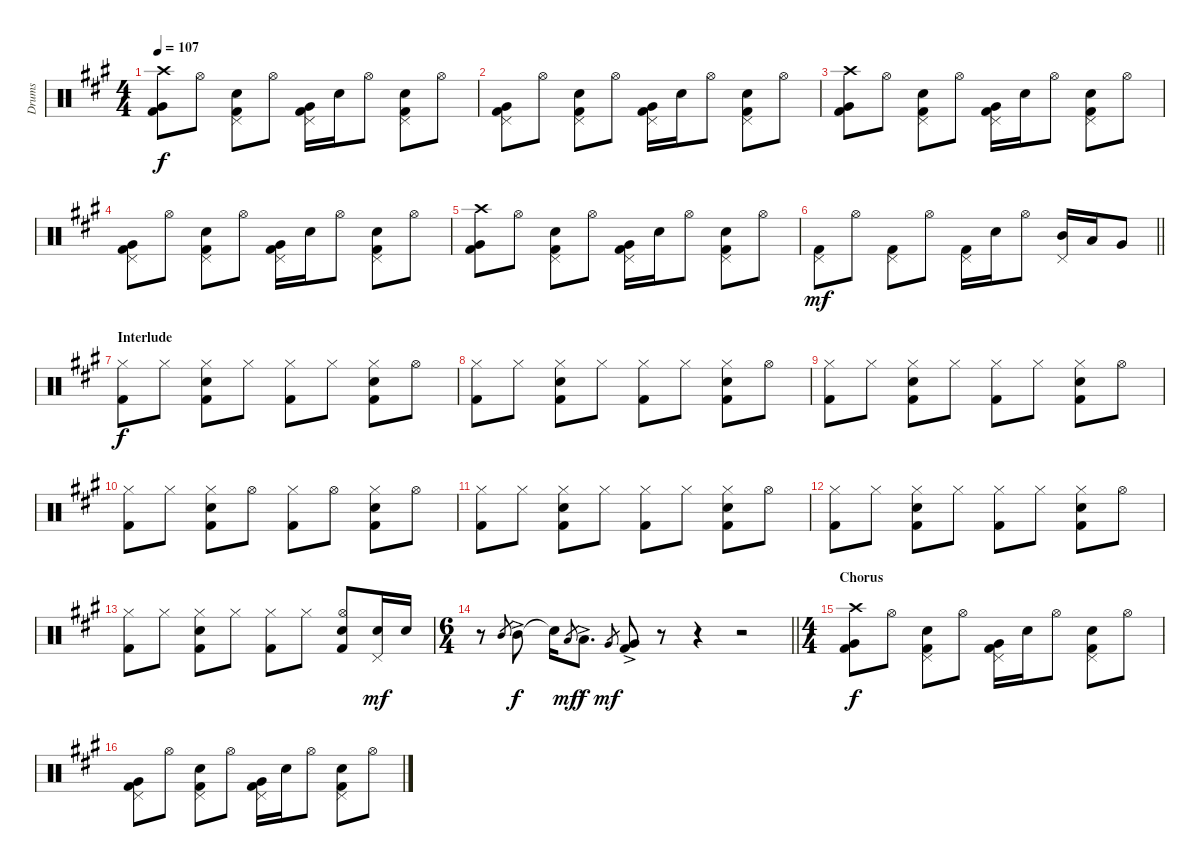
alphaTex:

\track ("Drums" "Drums") {instrument percussion}
\staff {score}
\articulation defaults
\ts (4 4)
\tempo 107
\clef neutral
\ks f#minor
("Crash high (hit)" "Very Low Tom (hit)" "Kick (hit) 2").8{dy f} "Hi-Hat (open)".8 ("Electric Snare (hit)" "Pedal Hi-Hat (hit)" "Kick (hit) 2").8 "Hi-Hat (open)".8 ("Very Low Tom (hit)" "Pedal Hi-Hat (hit)" "Kick (hit) 2").16 "Electric Snare (hit)".16 "Hi-Hat (open)".8 ("Electric Snare (hit)" "Pedal Hi-Hat (hit)" "Kick (hit) 2").8 "Hi-Hat (open)".8 |
("Very Low Tom (hit)" "Pedal Hi-Hat (hit)" "Kick (hit) 2").8 "Hi-Hat (open)".8 ("Electric Snare (hit)" "Pedal Hi-Hat (hit)" "Kick (hit) 2").8 "Hi-Hat (open)".8 ("Very Low Tom (hit)" "Pedal Hi-Hat (hit)" "Kick (hit) 2").16 "Electric Snare (hit)".16 "Hi-Hat (open)".8 ("Electric Snare (hit)" "Pedal Hi-Hat (hit)" "Kick (hit) 2").8 "Hi-Hat (open)".8 |
("Crash high (hit)" "Very Low Tom (hit)" "Kick (hit) 2").8 "Hi-Hat (open)".8 ("Electric Snare (hit)" "Pedal Hi-Hat (hit)" "Kick (hit) 2").8 "Hi-Hat (open)".8 ("Very Low Tom (hit)" "Pedal Hi-Hat (hit)" "Kick (hit) 2").16 "Electric Snare (hit)".16 "Hi-Hat (open)".8 ("Electric Snare (hit)" "Pedal Hi-Hat (hit)" "Kick (hit) 2").8 "Hi-Hat (open)".8 |
("Very Low Tom (hit)" "Pedal Hi-Hat (hit)" "Kick (hit) 2").8 "Hi-Hat (open)".8 ("Electric Snare (hit)" "Pedal Hi-Hat (hit)" "Kick (hit) 2").8 "Hi-Hat (open)".8 ("Very Low Tom (hit)" "Pedal Hi-Hat (hit)" "Kick (hit) 2").16 "Electric Snare (hit)".16 "Hi-Hat (open)".8 ("Electric Snare (hit)" "Pedal Hi-Hat (hit)" "Kick (hit) 2").8 "Hi-Hat (open)".8 |
("Crash high (hit)" "Very Low Tom (hit)" "Kick (hit) 2").8 "Hi-Hat (open)".8 ("Electric Snare (hit)" "Pedal Hi-Hat (hit)" "Kick (hit) 2").8 "Hi-Hat (open)".8 ("Very Low Tom (hit)" "Pedal Hi-Hat (hit)" "Kick (hit) 2").16 "Electric Snare (hit)".16 "Hi-Hat (open)".8 ("Electric Snare (hit)" "Pedal Hi-Hat (hit)" "Kick (hit) 2").8 "Hi-Hat (open)".8 |
\barLineRight lightlight
("Pedal Hi-Hat (hit)" "Kick (hit) 2").8{dy mf} "Hi-Hat (open)".8 ("Pedal Hi-Hat (hit)" "Kick (hit) 2").8 "Hi-Hat (open)".8 ("Pedal Hi-Hat (hit)" "Kick (hit) 2").16 "Electric Snare (hit)".16 "Hi-Hat (open)".8 ("Mid Tom (hit)" "Pedal Hi-Hat (hit)").16 "Low Tom (hit)".16 "Very Low Tom (hit)".8 |
\section ("" "Interlude")
("Hi-Hat (closed)" "Kick (hit) 2").8{dy f} "Hi-Hat (closed)".8 ("Hi-Hat (closed)" "Electric Snare (hit)" "Kick (hit) 2").8 "Hi-Hat (closed)".8 ("Hi-Hat (closed)" "Kick (hit) 2").8 "Hi-Hat (closed)".8 ("Hi-Hat (closed)" "Electric Snare (hit)" "Kick (hit) 2").8 "Hi-Hat (open)".8 |
("Hi-Hat (closed)" "Kick (hit) 2").8 "Hi-Hat (closed)".8 ("Hi-Hat (closed)" "Electric Snare (hit)" "Kick (hit) 2").8 "Hi-Hat (closed)".8 ("Hi-Hat (closed)" "Kick (hit) 2").8 "Hi-Hat (closed)".8 ("Hi-Hat (closed)" "Electric Snare (hit)" "Kick (hit) 2").8 "Hi-Hat (open)".8 |
("Hi-Hat (closed)" "Kick (hit) 2").8 "Hi-Hat (closed)".8 ("Hi-Hat (closed)" "Electric Snare (hit)" "Kick (hit) 2").8 "Hi-Hat (closed)".8 ("Hi-Hat (closed)" "Kick (hit) 2").8 "Hi-Hat (closed)".8 ("Hi-Hat (closed)" "Electric Snare (hit)" "Kick (hit) 2").8 "Hi-Hat (open)".8 |
("Hi-Hat (closed)" "Kick (hit) 2").8 "Hi-Hat (closed)".8 ("Hi-Hat (closed)" "Electric Snare (hit)" "Kick (hit) 2").8 "Hi-Hat (open)".8 ("Hi-Hat (closed)" "Kick (hit) 2").8 "Hi-Hat (open)".8 ("Hi-Hat (closed)" "Electric Snare (hit)" "Kick (hit) 2").8 "Hi-Hat (open)".8 |
("Hi-Hat (closed)" "Kick (hit) 2").8 "Hi-Hat (closed)".8 ("Hi-Hat (closed)" "Electric Snare (hit)" "Kick (hit) 2").8 "Hi-Hat (closed)".8 ("Hi-Hat (closed)" "Kick (hit) 2").8 "Hi-Hat (closed)".8 ("Hi-Hat (closed)" "Electric Snare (hit)" "Kick (hit) 2").8 "Hi-Hat (open)".8 |
("Hi-Hat (closed)" "Kick (hit) 2").8 "Hi-Hat (closed)".8 ("Hi-Hat (closed)" "Electric Snare (hit)" "Kick (hit) 2").8 "Hi-Hat (closed)".8 ("Hi-Hat (closed)" "Kick (hit) 2").8 "Hi-Hat (closed)".8 ("Hi-Hat (closed)" "Electric Snare (hit)" "Kick (hit) 2").8 "Hi-Hat (open)".8 |
("Hi-Hat (closed)" "Kick (hit) 2").8 "Hi-Hat (closed)".8 ("Hi-Hat (closed)" "Electric Snare (hit)" "Kick (hit) 2").8 "Hi-Hat (closed)".8 ("Hi-Hat (closed)" "Kick (hit) 2").8 "Hi-Hat (closed)".8 ("Hi-Hat (open)" "Electric Snare (hit)" "Kick (hit) 2").8 ("Electric Snare (hit)" "Pedal Hi-Hat (hit)").16{dy mf} "Electric Snare (hit)".16 |
\ts (6 4)
\barLineRight lightlight
r.8 "Mid Tom (hit)".8{gr} "Mid Tom (hit)"{ac}.8{dy f beam split} "Snare (hit)"{t}.16 "Low Tom (hit)".8{gr dy mf} "Low Tom (hit)"{ac}.8{d dy f} "Very Low Tom (hit)".8{gr dy mf beam split} ("Very Low Tom (hit)"{ac} "Kick (hit) 2").8 r.8 r.4 r.2 |
\ts (4 4)
\section ("" "Chorus")
("Crash high (hit)" "Very Low Tom (hit)" "Kick (hit) 2").8{dy f} "Hi-Hat (open)".8 ("Electric Snare (hit)" "Pedal Hi-Hat (hit)" "Kick (hit) 2").8 "Hi-Hat (open)".8 ("Very Low Tom (hit)" "Pedal Hi-Hat (hit)" "Kick (hit) 2").16 "Electric Snare (hit)".16 "Hi-Hat (open)".8 ("Electric Snare (hit)" "Pedal Hi-Hat (hit)" "Kick (hit) 2").8 "Hi-Hat (open)".8 |
("Very Low Tom (hit)" "Pedal Hi-Hat (hit)" "Kick (hit) 2").8 "Hi-Hat (open)".8 ("Electric Snare (hit)" "Pedal Hi-Hat (hit)" "Kick (hit) 2").8 "Hi-Hat (open)".8 ("Very Low Tom (hit)" "Pedal Hi-Hat (hit)" "Kick (hit) 2").16 "Electric Snare (hit)".16 "Hi-Hat (open)".8 ("Electric Snare (hit)" "Pedal Hi-Hat (hit)" "Kick (hit) 2").8 "Hi-Hat (open)".8
